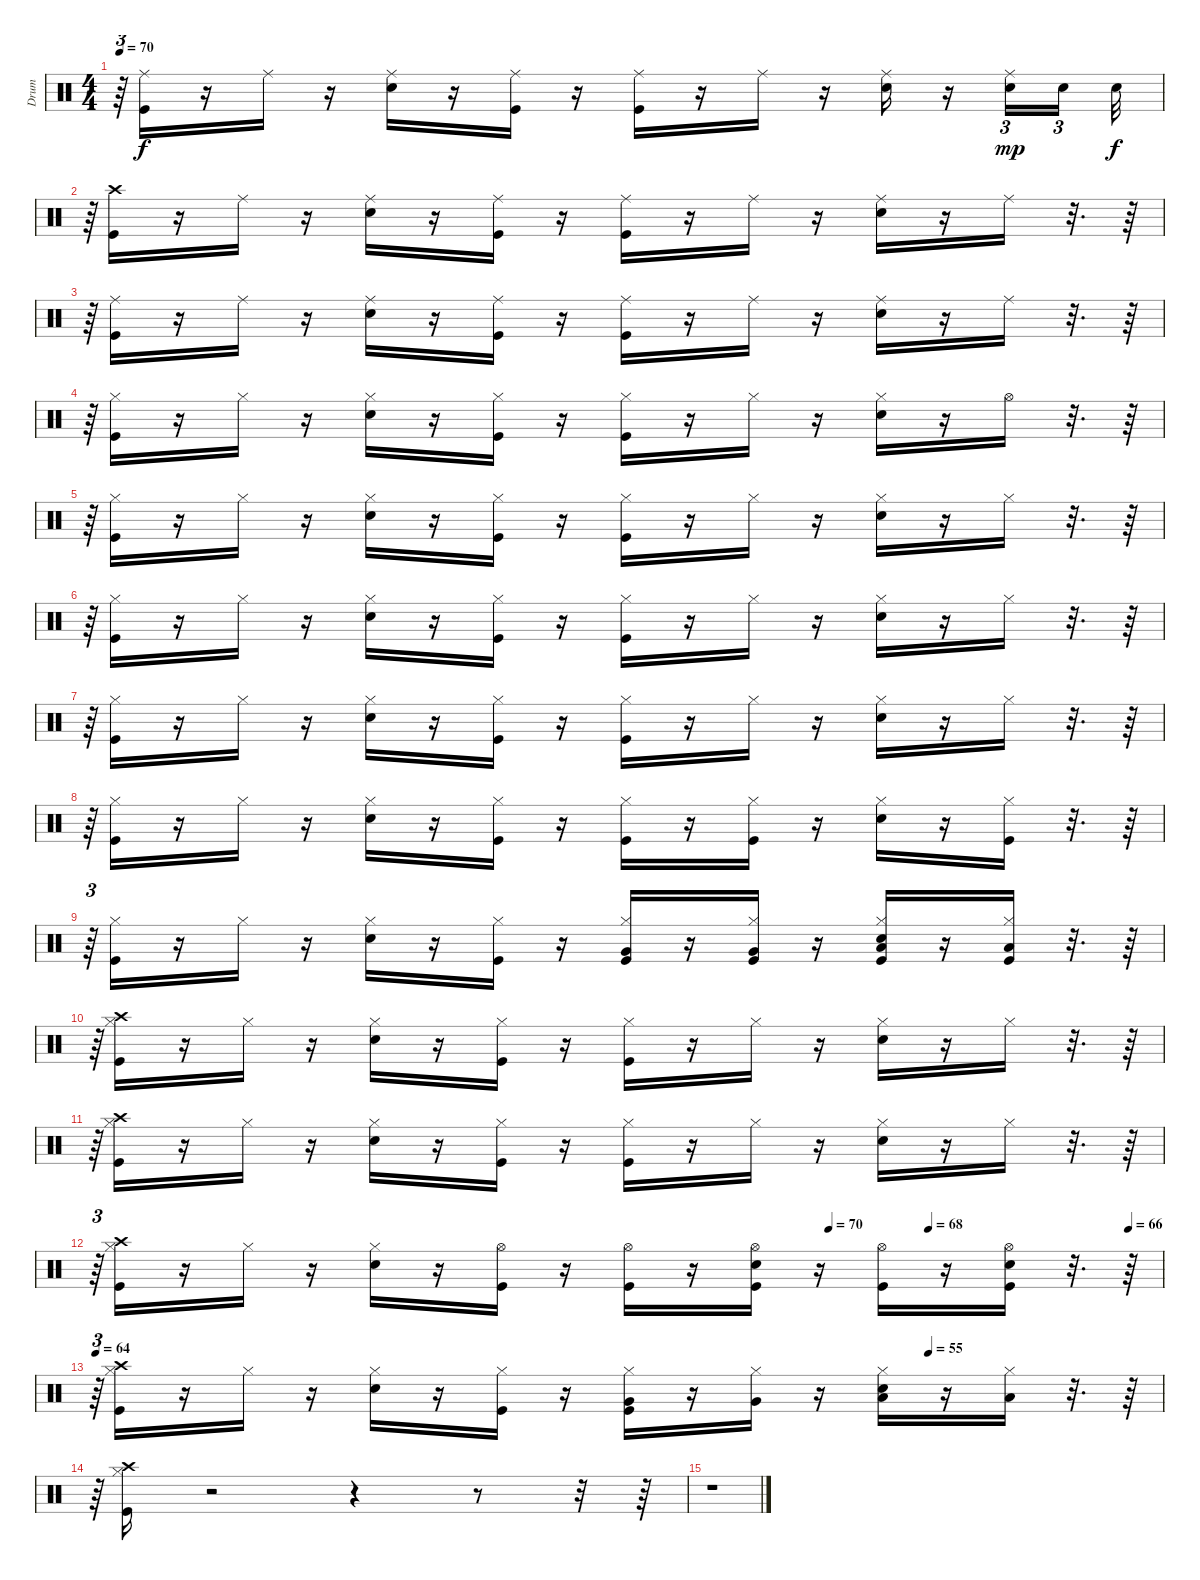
\track ("Drum" "Drum") {instrument percussion}
\staff {score}
\articulation defaults
\ts (4 4)
\tempo 70
\clef neutral
\ks c
r.64{tu (3 2) dy f} ("Kick (hit)" "Ride (middle)").16 r.16 "Ride (middle)".16 r.16 ("Snare (hit) 2" "Ride (middle)").16 r.16 ("Kick (hit)" "Ride (middle)").16 r.16 ("Kick (hit)" "Ride (middle)").16 r.16 "Ride (middle)".16 r.16 ("Snare (hit) 2" "Ride (middle)").16 r.16 ("Ride (middle)" "Snare (hit) 2").16{tu (3 2) dy mp} "Snare (hit) 2".16{tu (3 2)} "Snare (hit) 2".32{dy f} |
r.64{tu (3 2)} ("Kick (hit)" "Crash high (hit)").16 r.16 "Ride (middle)".16 r.16 ("Snare (hit) 2" "Ride (middle)").16 r.16 ("Kick (hit)" "Ride (middle)").16 r.16 ("Kick (hit)" "Ride (middle)").16 r.16 "Ride (middle)".16 r.16 ("Snare (hit) 2" "Ride (middle)").16 r.16 "Ride (middle)".16 r.32{d} r.64 |
r.64{tu (3 2)} ("Kick (hit)" "Ride (middle)").16 r.16 "Ride (middle)".16 r.16 ("Snare (hit) 2" "Ride (middle)").16 r.16 ("Kick (hit)" "Ride (middle)").16 r.16 ("Kick (hit)" "Ride (middle)").16 r.16 "Ride (middle)".16 r.16 ("Snare (hit) 2" "Ride (middle)").16 r.16 "Ride (middle)".16 r.32{d} r.64 |
r.64{tu (3 2)} ("Kick (hit)" "Hi-Hat (closed)").16 r.16 "Hi-Hat (closed)".16 r.16 ("Snare (hit) 2" "Hi-Hat (closed)").16 r.16 ("Kick (hit)" "Hi-Hat (closed)").16 r.16 ("Kick (hit)" "Hi-Hat (closed)").16 r.16 "Hi-Hat (closed)".16 r.16 ("Snare (hit) 2" "Hi-Hat (closed)").16 r.16 "Hi-Hat (open)".16 r.32{d} r.64 |
r.64{tu (3 2)} ("Kick (hit)" "Hi-Hat (closed)").16 r.16 "Hi-Hat (closed)".16 r.16 ("Snare (hit) 2" "Hi-Hat (closed)").16 r.16 ("Kick (hit)" "Hi-Hat (closed)").16 r.16 ("Kick (hit)" "Hi-Hat (closed)").16 r.16 "Hi-Hat (closed)".16 r.16 ("Snare (hit) 2" "Hi-Hat (closed)").16 r.16 "Hi-Hat (closed)".16 r.32{d} r.64 |
r.64{tu (3 2)} ("Kick (hit)" "Hi-Hat (closed)").16 r.16 "Hi-Hat (closed)".16 r.16 ("Snare (hit) 2" "Hi-Hat (closed)").16 r.16 ("Kick (hit)" "Hi-Hat (closed)").16 r.16 ("Kick (hit)" "Hi-Hat (closed)").16 r.16 "Hi-Hat (closed)".16 r.16 ("Snare (hit) 2" "Hi-Hat (closed)").16 r.16 "Hi-Hat (closed)".16 r.32{d} r.64 |
r.64{tu (3 2)} ("Kick (hit)" "Hi-Hat (closed)").16 r.16 "Hi-Hat (closed)".16 r.16 ("Snare (hit) 2" "Hi-Hat (closed)").16 r.16 ("Kick (hit)" "Hi-Hat (closed)").16 r.16 ("Kick (hit)" "Hi-Hat (closed)").16 r.16 "Hi-Hat (closed)".16 r.16 ("Snare (hit) 2" "Hi-Hat (closed)").16 r.16 "Hi-Hat (closed)".16 r.32{d} r.64 |
r.64{tu (3 2)} ("Kick (hit)" "Hi-Hat (closed)").16 r.16 "Hi-Hat (closed)".16 r.16 ("Snare (hit) 2" "Hi-Hat (closed)").16 r.16 ("Kick (hit)" "Hi-Hat (closed)").16 r.16 ("Kick (hit)" "Hi-Hat (closed)").16 r.16 ("Hi-Hat (closed)" "Kick (hit)").16 r.16 ("Snare (hit) 2" "Hi-Hat (closed)").16 r.16 ("Hi-Hat (closed)" "Kick (hit)").16 r.32{d} r.64 |
r.64{tu (3 2)} ("Kick (hit)" "Hi-Hat (closed)").16 r.16 "Hi-Hat (closed)".16 r.16 ("Snare (hit) 2" "Hi-Hat (closed)").16 r.16 ("Kick (hit)" "Hi-Hat (closed)").16 r.16 ("Kick (hit)" "Hi-Hat (closed)" "Very Low Tom (hit)").16 r.16 ("Hi-Hat (closed)" "Kick (hit)" "Very Low Tom (hit)").16 r.16 ("Snare (hit) 2" "Hi-Hat (closed)" "Kick (hit)" "Low Floor Tom (hit)").16 r.16 ("Hi-Hat (closed)" "Kick (hit)" "Low Floor Tom (hit)").16 r.32{d} r.64 |
r.64{tu (3 2)} ("Kick (hit)" "Hi-Hat (closed)" "Crash high (hit)").16 r.16 "Hi-Hat (closed)".16 r.16 ("Snare (hit) 2" "Hi-Hat (closed)").16 r.16 ("Kick (hit)" "Hi-Hat (closed)").16 r.16 ("Kick (hit)" "Hi-Hat (closed)").16 r.16 "Hi-Hat (closed)".16 r.16 ("Snare (hit) 2" "Hi-Hat (closed)").16 r.16 "Hi-Hat (closed)".16 r.32{d} r.64 |
r.64{tu (3 2)} ("Kick (hit)" "Hi-Hat (closed)" "Crash high (hit)").16 r.16 "Hi-Hat (closed)".16 r.16 ("Snare (hit) 2" "Hi-Hat (closed)").16 r.16 ("Kick (hit)" "Hi-Hat (closed)").16 r.16 ("Kick (hit)" "Hi-Hat (closed)").16 r.16 "Hi-Hat (closed)".16 r.16 ("Snare (hit) 2" "Hi-Hat (closed)").16 r.16 "Hi-Hat (closed)".16 r.32{d} r.64 |
\tempo (70 0.6875)
\tempo (68 0.78125)
\tempo (66 0.96875)
r.64{tu (3 2)} ("Kick (hit)" "Hi-Hat (closed)" "Crash high (hit)").16 r.16 "Hi-Hat (closed)".16 r.16 ("Snare (hit) 2" "Hi-Hat (closed)").16 r.16 ("Kick (hit)" "Hi-Hat (open)").16 r.16 ("Kick (hit)" "Hi-Hat (open)").16 r.16 ("Hi-Hat (open)" "Snare (hit) 2" "Kick (hit)").16 r.16 ("Hi-Hat (open)" "Kick (hit)").16 r.16 ("Hi-Hat (open)" "Snare (hit) 2" "Kick (hit)").16 r.32{d} r.64 |
\tempo 64
\tempo (55 0.78125)
r.64{tu (3 2)} ("Kick (hit)" "Hi-Hat (closed)" "Crash high (hit)").16 r.16 "Hi-Hat (closed)".16 r.16 ("Snare (hit) 2" "Hi-Hat (closed)").16 r.16 ("Kick (hit)" "Hi-Hat (closed)").16 r.16 ("Kick (hit)" "Hi-Hat (closed)" "Very Low Tom (hit)").16 r.16 ("Hi-Hat (closed)" "Very Low Tom (hit)").16 r.16 ("Snare (hit) 2" "Hi-Hat (closed)" "Low Floor Tom (hit)").16 r.16 ("Hi-Hat (closed)" "Low Floor Tom (hit)").16 r.32{d} r.64 |
r.64{tu (3 2)} ("Kick (hit)" "Hi-Hat (closed)" "Crash high (hit)").16 r.2 r.4 r.8 r.32 r.64 |
r.1
